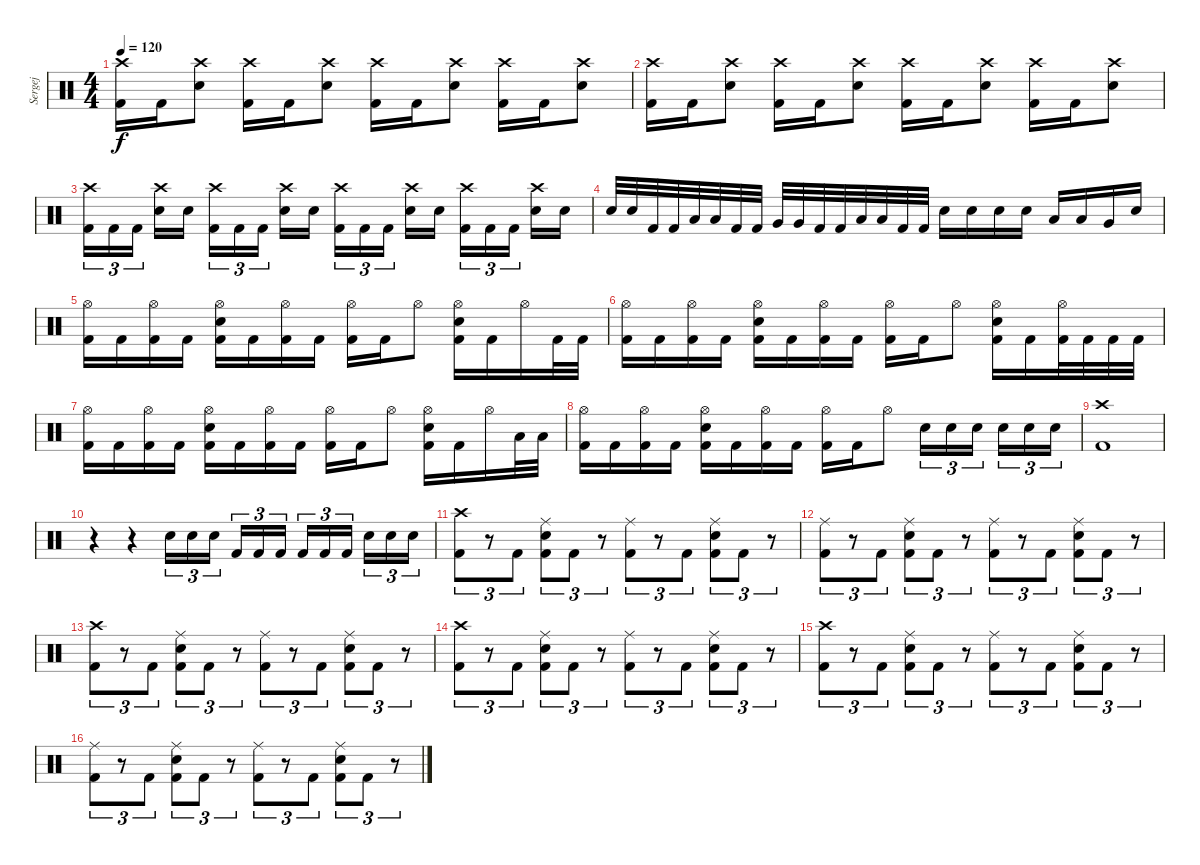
\track ("Sergej" "Sergej") {instrument percussion}
\staff {score}
\articulation defaults
\ts (4 4)
\tempo 120
\clef neutral
\ks c
("Crash high (hit)" "Kick (hit) 2").16{dy f} "Kick (hit) 2".16 ("Crash high (hit)" "Snare (hit) 2").8 ("Crash high (hit)" "Kick (hit) 2").16 "Kick (hit) 2".16 ("Crash high (hit)" "Snare (hit) 2").8 ("Crash high (hit)" "Kick (hit) 2").16 "Kick (hit) 2".16 ("Crash high (hit)" "Snare (hit) 2").8 ("Crash high (hit)" "Kick (hit) 2").16 "Kick (hit) 2".16 ("Crash high (hit)" "Snare (hit) 2").8 |
("Crash high (hit)" "Kick (hit) 2").16 "Kick (hit) 2".16 ("Crash high (hit)" "Snare (hit) 2").8 ("Crash high (hit)" "Kick (hit) 2").16 "Kick (hit) 2".16 ("Crash high (hit)" "Snare (hit) 2").8 ("Crash high (hit)" "Kick (hit) 2").16 "Kick (hit) 2".16 ("Crash high (hit)" "Snare (hit) 2").8 ("Crash high (hit)" "Kick (hit) 2").16 "Kick (hit) 2".16 ("Crash high (hit)" "Snare (hit) 2").8 |
("Crash high (hit)" "Kick (hit) 2").16{tu (3 2)} "Kick (hit) 2".16{tu (3 2)} "Kick (hit) 2".16{tu (3 2)} ("Crash high (hit)" "Snare (hit) 2").16 "Snare (hit) 2".16 ("Crash high (hit)" "Kick (hit) 2").16{tu (3 2)} "Kick (hit) 2".16{tu (3 2)} "Kick (hit) 2".16{tu (3 2)} ("Crash high (hit)" "Snare (hit) 2").16 "Snare (hit) 2".16 ("Crash high (hit)" "Kick (hit) 2").16{tu (3 2)} "Kick (hit) 2".16{tu (3 2)} "Kick (hit) 2".16{tu (3 2)} ("Crash high (hit)" "Snare (hit) 2").16 "Snare (hit) 2".16 ("Crash high (hit)" "Kick (hit) 2").16{tu (3 2)} "Kick (hit) 2".16{tu (3 2)} "Kick (hit) 2".16{tu (3 2)} ("Crash high (hit)" "Snare (hit) 2").16 "Snare (hit) 2".16 |
"Snare (hit) 2".32 "Snare (hit) 2".32 "Kick (hit) 2".32 "Kick (hit) 2".32 "Low Tom (hit)".32 "Low Tom (hit)".32 "Kick (hit) 2".32 "Kick (hit) 2".32 "Very Low Tom (hit)".32 "Very Low Tom (hit)".32 "Kick (hit) 2".32 "Kick (hit) 2".32 "Low Floor Tom (hit)".32 "Low Floor Tom (hit)".32 "Kick (hit) 2".32 "Kick (hit) 2".32 "Snare (hit) 2".16 "Snare (hit) 2".16 "Snare (hit) 2".16 "Snare (hit) 2".16 "Low Tom (hit)".16 "Low Tom (hit)".16 "Very Low Tom (hit)".16 "Snare (hit) 2".16 |
("Hi-Hat (open)" "Kick (hit) 2").16 "Kick (hit) 2".16 ("Hi-Hat (open)" "Kick (hit) 2").16 "Kick (hit) 2".16 ("Hi-Hat (open)" "Snare (hit) 2" "Kick (hit) 2").16 "Kick (hit) 2".16 ("Hi-Hat (open)" "Kick (hit) 2").16 "Kick (hit) 2".16 ("Hi-Hat (open)" "Kick (hit) 2").16 "Kick (hit) 2".16 "Hi-Hat (open)".8 ("Hi-Hat (open)" "Snare (hit) 2" "Kick (hit) 2").16 "Kick (hit) 2".16 "Hi-Hat (open)".16 "Kick (hit) 2".32 "Kick (hit) 2".32 |
("Hi-Hat (open)" "Kick (hit) 2").16 "Kick (hit) 2".16 ("Hi-Hat (open)" "Kick (hit) 2").16 "Kick (hit) 2".16 ("Hi-Hat (open)" "Snare (hit) 2" "Kick (hit) 2").16 "Kick (hit) 2".16 ("Hi-Hat (open)" "Kick (hit) 2").16 "Kick (hit) 2".16 ("Hi-Hat (open)" "Kick (hit) 2").16 "Kick (hit) 2".16 "Hi-Hat (open)".8 ("Hi-Hat (open)" "Snare (hit) 2" "Kick (hit) 2").16 "Kick (hit) 2".16 ("Hi-Hat (open)" "Kick (hit) 2").32 "Kick (hit) 2".32 "Kick (hit) 2".32 "Kick (hit) 2".32 |
("Hi-Hat (open)" "Kick (hit) 2").16 "Kick (hit) 2".16 ("Hi-Hat (open)" "Kick (hit) 2").16 "Kick (hit) 2".16 ("Hi-Hat (open)" "Snare (hit) 2" "Kick (hit) 2").16 "Kick (hit) 2".16 ("Hi-Hat (open)" "Kick (hit) 2").16 "Kick (hit) 2".16 ("Hi-Hat (open)" "Kick (hit) 2").16 "Kick (hit) 2".16 "Hi-Hat (open)".8 ("Hi-Hat (open)" "Snare (hit) 2" "Kick (hit) 2").16 "Kick (hit) 2".16 "Hi-Hat (open)".16 "Low Tom (hit)".32 "Low Tom (hit)".32 |
("Hi-Hat (open)" "Kick (hit) 2").16 "Kick (hit) 2".16 ("Hi-Hat (open)" "Kick (hit) 2").16 "Kick (hit) 2".16 ("Hi-Hat (open)" "Snare (hit) 2" "Kick (hit) 2").16 "Kick (hit) 2".16 ("Hi-Hat (open)" "Kick (hit) 2").16 "Kick (hit) 2".16 ("Hi-Hat (open)" "Kick (hit) 2").16 "Kick (hit) 2".16 "Hi-Hat (open)".8 "Snare (hit) 2".16{tu (3 2)} "Snare (hit) 2".16{tu (3 2)} "Snare (hit) 2".16{tu (3 2)} "Snare (hit) 2".16{tu (3 2)} "Snare (hit) 2".16{tu (3 2)} "Snare (hit) 2".16{tu (3 2)} |
("Crash high (hit)" "Kick (hit) 2").1 |
r.4 r.4 "Snare (hit) 2".16{tu (3 2)} "Snare (hit) 2".16{tu (3 2)} "Snare (hit) 2".16{tu (3 2)} "Kick (hit) 2".16{tu (3 2)} "Kick (hit) 2".16{tu (3 2)} "Kick (hit) 2".16{tu (3 2)} "Kick (hit) 2".16{tu (3 2)} "Kick (hit) 2".16{tu (3 2)} "Kick (hit) 2".16{tu (3 2)} "Snare (hit) 2".16{tu (3 2)} "Snare (hit) 2".16{tu (3 2)} "Snare (hit) 2".16{tu (3 2)} |
("Crash high (hit)" "Kick (hit) 2").8{tu (3 2)} r.8{tu (3 2)} "Kick (hit) 2".8{tu (3 2)} ("Ride (middle)" "Snare (hit) 2" "Kick (hit) 2").8{tu (3 2)} "Kick (hit) 2".8{tu (3 2)} r.8{tu (3 2)} ("Ride (middle)" "Kick (hit) 2").8{tu (3 2)} r.8{tu (3 2)} "Kick (hit) 2".8{tu (3 2)} ("Ride (middle)" "Snare (hit) 2" "Kick (hit) 2").8{tu (3 2)} "Kick (hit) 2".8{tu (3 2)} r.8{tu (3 2)} |
("Ride (middle)" "Kick (hit) 2").8{tu (3 2)} r.8{tu (3 2)} "Kick (hit) 2".8{tu (3 2)} ("Ride (middle)" "Snare (hit) 2" "Kick (hit) 2").8{tu (3 2)} "Kick (hit) 2".8{tu (3 2)} r.8{tu (3 2)} ("Ride (middle)" "Kick (hit) 2").8{tu (3 2)} r.8{tu (3 2)} "Kick (hit) 2".8{tu (3 2)} ("Ride (middle)" "Snare (hit) 2" "Kick (hit) 2").8{tu (3 2)} "Kick (hit) 2".8{tu (3 2)} r.8{tu (3 2)} |
("Crash high (hit)" "Kick (hit) 2").8{tu (3 2)} r.8{tu (3 2)} "Kick (hit) 2".8{tu (3 2)} ("Ride (middle)" "Snare (hit) 2" "Kick (hit) 2").8{tu (3 2)} "Kick (hit) 2".8{tu (3 2)} r.8{tu (3 2)} ("Ride (middle)" "Kick (hit) 2").8{tu (3 2)} r.8{tu (3 2)} "Kick (hit) 2".8{tu (3 2)} ("Ride (middle)" "Snare (hit) 2" "Kick (hit) 2").8{tu (3 2)} "Kick (hit) 2".8{tu (3 2)} r.8{tu (3 2)} |
("Crash high (hit)" "Kick (hit) 2").8{tu (3 2)} r.8{tu (3 2)} "Kick (hit) 2".8{tu (3 2)} ("Ride (middle)" "Snare (hit) 2" "Kick (hit) 2").8{tu (3 2)} "Kick (hit) 2".8{tu (3 2)} r.8{tu (3 2)} ("Ride (middle)" "Kick (hit) 2").8{tu (3 2)} r.8{tu (3 2)} "Kick (hit) 2".8{tu (3 2)} ("Ride (middle)" "Snare (hit) 2" "Kick (hit) 2").8{tu (3 2)} "Kick (hit) 2".8{tu (3 2)} r.8{tu (3 2)} |
("Crash high (hit)" "Kick (hit) 2").8{tu (3 2)} r.8{tu (3 2)} "Kick (hit) 2".8{tu (3 2)} ("Ride (middle)" "Snare (hit) 2" "Kick (hit) 2").8{tu (3 2)} "Kick (hit) 2".8{tu (3 2)} r.8{tu (3 2)} ("Ride (middle)" "Kick (hit) 2").8{tu (3 2)} r.8{tu (3 2)} "Kick (hit) 2".8{tu (3 2)} ("Ride (middle)" "Snare (hit) 2" "Kick (hit) 2").8{tu (3 2)} "Kick (hit) 2".8{tu (3 2)} r.8{tu (3 2)} |
("Ride (middle)" "Kick (hit) 2").8{tu (3 2)} r.8{tu (3 2)} "Kick (hit) 2".8{tu (3 2)} ("Ride (middle)" "Snare (hit) 2" "Kick (hit) 2").8{tu (3 2)} "Kick (hit) 2".8{tu (3 2)} r.8{tu (3 2)} ("Ride (middle)" "Kick (hit) 2").8{tu (3 2)} r.8{tu (3 2)} "Kick (hit) 2".8{tu (3 2)} ("Ride (middle)" "Snare (hit) 2" "Kick (hit) 2").8{tu (3 2)} "Kick (hit) 2".8{tu (3 2)} r.8{tu (3 2)}
